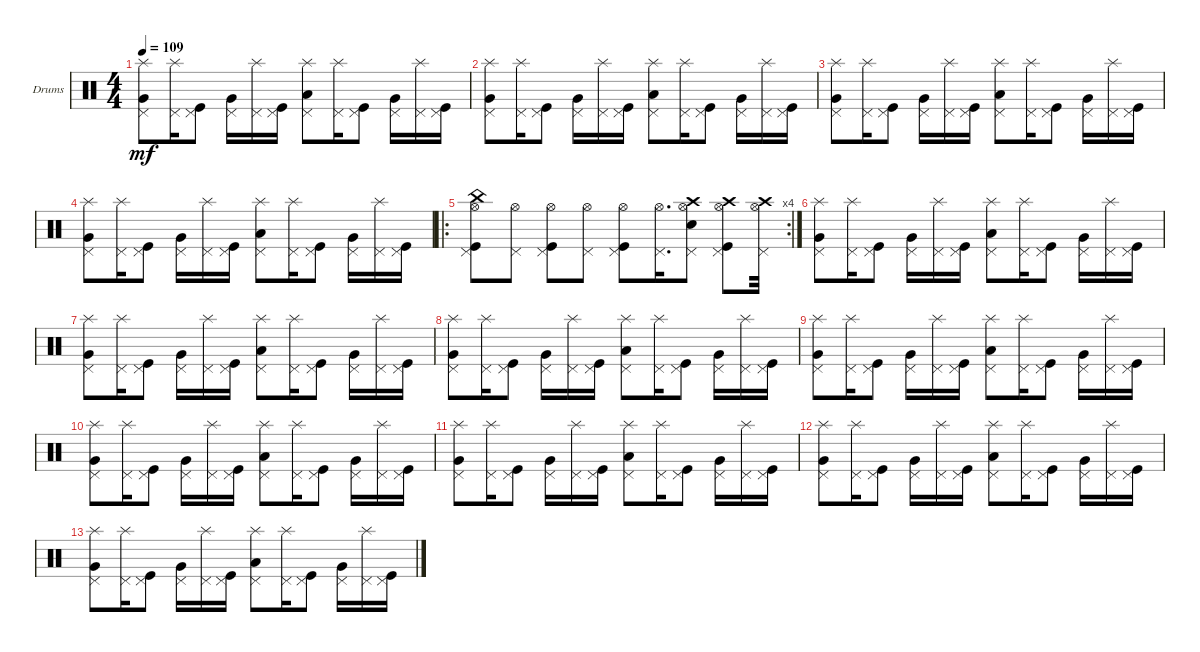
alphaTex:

\defaultSystemsLayout 4
\bracketExtendMode groupsimilarinstruments
\firstSystemTrackNameOrientation horizontal
\otherSystemsTrackNameOrientation horizontal
\track ("Drumkit" "Drums") {instrument percussion}
\staff {score}
\articulation defaults
\ts (4 4)
\tempo 109
\clef neutral
\scale
0.333333
\ks c
("Splash (hit)" "Pedal Hi-Hat (hit)" "Very Low Tom (hit)").8{dy mf} ("Splash (hit)" "Pedal Hi-Hat (hit)").16 ("Kick (hit)" "Pedal Hi-Hat (hit)").8 ("Very Low Tom (hit)" "Pedal Hi-Hat (hit)").16 ("Splash (hit)" "Pedal Hi-Hat (hit)").16 ("Kick (hit)" "Pedal Hi-Hat (hit)").16 ("Low Tom (hit)" "Splash (hit)" "Pedal Hi-Hat (hit)").8 ("Splash (hit)" "Pedal Hi-Hat (hit)").16 ("Kick (hit)" "Pedal Hi-Hat (hit)").8 ("Very Low Tom (hit)" "Pedal Hi-Hat (hit)").16 ("Splash (hit)" "Pedal Hi-Hat (hit)").16 ("Kick (hit)" "Pedal Hi-Hat (hit)").16 |
("Splash (hit)" "Pedal Hi-Hat (hit)" "Very Low Tom (hit)").8 ("Splash (hit)" "Pedal Hi-Hat (hit)").16 ("Kick (hit)" "Pedal Hi-Hat (hit)").8 ("Very Low Tom (hit)" "Pedal Hi-Hat (hit)").16 ("Splash (hit)" "Pedal Hi-Hat (hit)").16 ("Kick (hit)" "Pedal Hi-Hat (hit)").16 ("Low Tom (hit)" "Splash (hit)" "Pedal Hi-Hat (hit)").8 ("Splash (hit)" "Pedal Hi-Hat (hit)").16 ("Kick (hit)" "Pedal Hi-Hat (hit)").8 ("Very Low Tom (hit)" "Pedal Hi-Hat (hit)").16 ("Splash (hit)" "Pedal Hi-Hat (hit)").16 ("Kick (hit)" "Pedal Hi-Hat (hit)").16 |
("Splash (hit)" "Pedal Hi-Hat (hit)" "Very Low Tom (hit)").8 ("Splash (hit)" "Pedal Hi-Hat (hit)").16 ("Kick (hit)" "Pedal Hi-Hat (hit)").8 ("Very Low Tom (hit)" "Pedal Hi-Hat (hit)").16 ("Splash (hit)" "Pedal Hi-Hat (hit)").16 ("Kick (hit)" "Pedal Hi-Hat (hit)").16 ("Low Tom (hit)" "Splash (hit)" "Pedal Hi-Hat (hit)").8 ("Splash (hit)" "Pedal Hi-Hat (hit)").16 ("Kick (hit)" "Pedal Hi-Hat (hit)").8 ("Very Low Tom (hit)" "Pedal Hi-Hat (hit)").16 ("Splash (hit)" "Pedal Hi-Hat (hit)").16 ("Kick (hit)" "Pedal Hi-Hat (hit)").16 |
("Splash (hit)" "Pedal Hi-Hat (hit)" "Very Low Tom (hit)").8 ("Splash (hit)" "Pedal Hi-Hat (hit)").16 ("Kick (hit)" "Pedal Hi-Hat (hit)").8 ("Very Low Tom (hit)" "Pedal Hi-Hat (hit)").16 ("Splash (hit)" "Pedal Hi-Hat (hit)").16 ("Kick (hit)" "Pedal Hi-Hat (hit)").16 ("Low Tom (hit)" "Splash (hit)" "Pedal Hi-Hat (hit)").8 ("Splash (hit)" "Pedal Hi-Hat (hit)").16 ("Kick (hit)" "Pedal Hi-Hat (hit)").8 ("Very Low Tom (hit)" "Pedal Hi-Hat (hit)").16 ("Splash (hit)" "Pedal Hi-Hat (hit)").16 ("Kick (hit)" "Pedal Hi-Hat (hit)").16 |
\ro
\rc 4
("Kick (hit)" "Pedal Hi-Hat (hit)" "Hi-Hat (open)" "China (hit)").8 ("Pedal Hi-Hat (hit)" "Hi-Hat (open)").8 ("Kick (hit)" "Pedal Hi-Hat (hit)" "Hi-Hat (open)").8 ("Pedal Hi-Hat (hit)" "Hi-Hat (open)").8 ("Kick (hit)" "Pedal Hi-Hat (hit)" "Hi-Hat (open)").8 ("Pedal Hi-Hat (hit)" "Hi-Hat (open)").16{d} ("Pedal Hi-Hat (hit)" "Snare (hit) 2" "Hi-Hat (open)" "Crash high (hit)").8 ("Kick (hit)" "Pedal Hi-Hat (hit)" "Hi-Hat (open)" "Crash high (hit)").8 ("Pedal Hi-Hat (hit)" "Hi-Hat (open)" "Crash high (hit)").32 |
("Splash (hit)" "Pedal Hi-Hat (hit)" "Very Low Tom (hit)").8 ("Splash (hit)" "Pedal Hi-Hat (hit)").16 ("Kick (hit)" "Pedal Hi-Hat (hit)").8 ("Very Low Tom (hit)" "Pedal Hi-Hat (hit)").16 ("Splash (hit)" "Pedal Hi-Hat (hit)").16 ("Kick (hit)" "Pedal Hi-Hat (hit)").16 ("Low Tom (hit)" "Splash (hit)" "Pedal Hi-Hat (hit)").8 ("Splash (hit)" "Pedal Hi-Hat (hit)").16 ("Kick (hit)" "Pedal Hi-Hat (hit)").8 ("Very Low Tom (hit)" "Pedal Hi-Hat (hit)").16 ("Pedal Hi-Hat (hit)" "Splash (hit)").16 ("Kick (hit)" "Pedal Hi-Hat (hit)").16 |
("Splash (hit)" "Pedal Hi-Hat (hit)" "Very Low Tom (hit)").8 ("Splash (hit)" "Pedal Hi-Hat (hit)").16 ("Kick (hit)" "Pedal Hi-Hat (hit)").8 ("Very Low Tom (hit)" "Pedal Hi-Hat (hit)").16 ("Splash (hit)" "Pedal Hi-Hat (hit)").16 ("Kick (hit)" "Pedal Hi-Hat (hit)").16 ("Low Tom (hit)" "Splash (hit)" "Pedal Hi-Hat (hit)").8 ("Splash (hit)" "Pedal Hi-Hat (hit)").16 ("Kick (hit)" "Pedal Hi-Hat (hit)").8 ("Very Low Tom (hit)" "Pedal Hi-Hat (hit)").16 ("Splash (hit)" "Pedal Hi-Hat (hit)").16 ("Kick (hit)" "Pedal Hi-Hat (hit)").16 |
("Splash (hit)" "Pedal Hi-Hat (hit)" "Very Low Tom (hit)").8 ("Splash (hit)" "Pedal Hi-Hat (hit)").16 ("Kick (hit)" "Pedal Hi-Hat (hit)").8 ("Very Low Tom (hit)" "Pedal Hi-Hat (hit)").16 ("Splash (hit)" "Pedal Hi-Hat (hit)").16 ("Kick (hit)" "Pedal Hi-Hat (hit)").16 ("Low Tom (hit)" "Splash (hit)" "Pedal Hi-Hat (hit)").8 ("Splash (hit)" "Pedal Hi-Hat (hit)").16 ("Kick (hit)" "Pedal Hi-Hat (hit)").8 ("Very Low Tom (hit)" "Pedal Hi-Hat (hit)").16 ("Splash (hit)" "Pedal Hi-Hat (hit)").16 ("Kick (hit)" "Pedal Hi-Hat (hit)").16 |
("Splash (hit)" "Pedal Hi-Hat (hit)" "Very Low Tom (hit)").8 ("Splash (hit)" "Pedal Hi-Hat (hit)").16 ("Kick (hit)" "Pedal Hi-Hat (hit)").8 ("Very Low Tom (hit)" "Pedal Hi-Hat (hit)").16 ("Splash (hit)" "Pedal Hi-Hat (hit)").16 ("Kick (hit)" "Pedal Hi-Hat (hit)").16 ("Low Tom (hit)" "Splash (hit)" "Pedal Hi-Hat (hit)").8 ("Splash (hit)" "Pedal Hi-Hat (hit)").16 ("Kick (hit)" "Pedal Hi-Hat (hit)").8 ("Very Low Tom (hit)" "Pedal Hi-Hat (hit)").16 ("Splash (hit)" "Pedal Hi-Hat (hit)").16 ("Kick (hit)" "Pedal Hi-Hat (hit)").16 |
("Splash (hit)" "Pedal Hi-Hat (hit)" "Very Low Tom (hit)").8 ("Splash (hit)" "Pedal Hi-Hat (hit)").16 ("Kick (hit)" "Pedal Hi-Hat (hit)").8 ("Very Low Tom (hit)" "Pedal Hi-Hat (hit)").16 ("Splash (hit)" "Pedal Hi-Hat (hit)").16 ("Kick (hit)" "Pedal Hi-Hat (hit)").16 ("Low Tom (hit)" "Splash (hit)" "Pedal Hi-Hat (hit)").8 ("Splash (hit)" "Pedal Hi-Hat (hit)").16 ("Kick (hit)" "Pedal Hi-Hat (hit)").8 ("Very Low Tom (hit)" "Pedal Hi-Hat (hit)").16 ("Splash (hit)" "Pedal Hi-Hat (hit)").16 ("Kick (hit)" "Pedal Hi-Hat (hit)").16 |
("Splash (hit)" "Pedal Hi-Hat (hit)" "Very Low Tom (hit)").8 ("Splash (hit)" "Pedal Hi-Hat (hit)").16 ("Kick (hit)" "Pedal Hi-Hat (hit)").8 ("Very Low Tom (hit)" "Pedal Hi-Hat (hit)").16 ("Splash (hit)" "Pedal Hi-Hat (hit)").16 ("Kick (hit)" "Pedal Hi-Hat (hit)").16 ("Low Tom (hit)" "Splash (hit)" "Pedal Hi-Hat (hit)").8 ("Splash (hit)" "Pedal Hi-Hat (hit)").16 ("Kick (hit)" "Pedal Hi-Hat (hit)").8 ("Very Low Tom (hit)" "Pedal Hi-Hat (hit)").16 ("Splash (hit)" "Pedal Hi-Hat (hit)").16 ("Kick (hit)" "Pedal Hi-Hat (hit)").16 |
("Splash (hit)" "Pedal Hi-Hat (hit)" "Very Low Tom (hit)").8 ("Splash (hit)" "Pedal Hi-Hat (hit)").16 ("Kick (hit)" "Pedal Hi-Hat (hit)").8 ("Very Low Tom (hit)" "Pedal Hi-Hat (hit)").16 ("Splash (hit)" "Pedal Hi-Hat (hit)").16 ("Kick (hit)" "Pedal Hi-Hat (hit)").16 ("Low Tom (hit)" "Splash (hit)" "Pedal Hi-Hat (hit)").8 ("Splash (hit)" "Pedal Hi-Hat (hit)").16 ("Kick (hit)" "Pedal Hi-Hat (hit)").8 ("Very Low Tom (hit)" "Pedal Hi-Hat (hit)").16 ("Splash (hit)" "Pedal Hi-Hat (hit)").16 ("Kick (hit)" "Pedal Hi-Hat (hit)").16 |
("Splash (hit)" "Pedal Hi-Hat (hit)" "Very Low Tom (hit)").8 ("Splash (hit)" "Pedal Hi-Hat (hit)").16 ("Kick (hit)" "Pedal Hi-Hat (hit)").8 ("Very Low Tom (hit)" "Pedal Hi-Hat (hit)").16 ("Splash (hit)" "Pedal Hi-Hat (hit)").16 ("Kick (hit)" "Pedal Hi-Hat (hit)").16 ("Low Tom (hit)" "Splash (hit)" "Pedal Hi-Hat (hit)").8 ("Splash (hit)" "Pedal Hi-Hat (hit)").16 ("Kick (hit)" "Pedal Hi-Hat (hit)").8 ("Very Low Tom (hit)" "Pedal Hi-Hat (hit)").16 ("Splash (hit)" "Pedal Hi-Hat (hit)").16 ("Kick (hit)" "Pedal Hi-Hat (hit)").16
